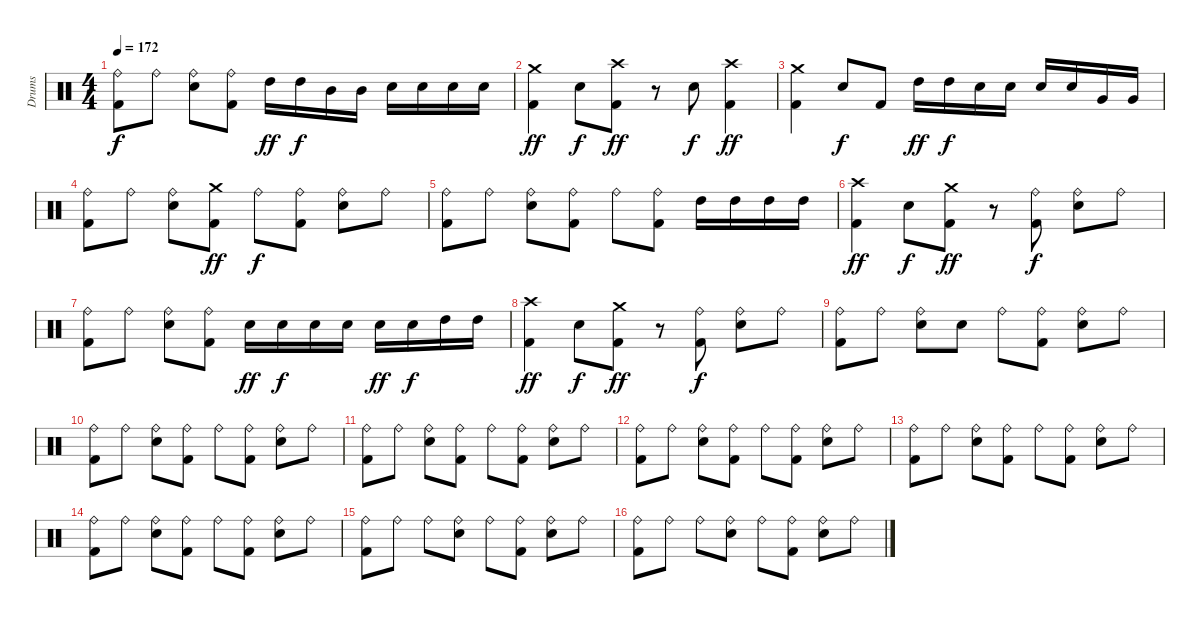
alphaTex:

\track ("Drums" "Drums") {instrument percussion}
\staff {score}
\articulation defaults
\ts (4 4)
\tempo 172
\clef neutral
\ks c
("Ride (bell)" "Kick (hit) 2").8{dy f} "Ride (bell)".8 ("Ride (bell)" "Electric Snare (hit)").8 ("Ride (bell)" "Kick (hit) 2").8 "High Tom (hit)".16{dy ff} "High Tom (hit)".16{dy f} "Mid Tom (hit)".16 "Mid Tom (hit)".16 "Electric Snare (hit)".16 "Electric Snare (hit)".16 "Electric Snare (hit)".16 "Electric Snare (hit)".16 |
("Crash medium (hit)" "Kick (hit) 2").4{dy ff} "Electric Snare (hit)".8{dy f} ("Crash high (hit)" "Kick (hit) 2").8{dy ff} r.8 "Electric Snare (hit)".8{dy f} ("Crash high (hit)" "Kick (hit) 2").4{dy ff} |
("Crash medium (hit)" "Kick (hit) 2").4 "Electric Snare (hit)".8{dy f} "Kick (hit) 2".8 "High Tom (hit)".16{dy ff} "High Tom (hit)".16{dy f} "Electric Snare (hit)".16 "Electric Snare (hit)".16 "Electric Snare (hit)".16 "Electric Snare (hit)".16 "Very Low Tom (hit)".16 "Very Low Tom (hit)".16 |
("Ride (bell)" "Kick (hit) 2").8 "Ride (bell)".8 ("Ride (bell)" "Electric Snare (hit)").8 ("Crash medium (hit)" "Kick (hit) 2").8{dy ff} "Ride (bell)".8{dy f} ("Ride (bell)" "Kick (hit) 2").8 ("Ride (bell)" "Electric Snare (hit)").8 "Ride (bell)".8 |
("Ride (bell)" "Kick (hit) 2").8 "Ride (bell)".8 ("Ride (bell)" "Electric Snare (hit)").8 ("Ride (bell)" "Kick (hit) 2").8 "Ride (bell)".8 ("Ride (bell)" "Kick (hit) 2").8 "High Tom (hit)".16 "High Tom (hit)".16 "High Tom (hit)".16 "High Tom (hit)".16 |
("Crash high (hit)" "Kick (hit) 2").4{dy ff} "Electric Snare (hit)".8{dy f} ("Crash medium (hit)" "Kick (hit) 2").8{dy ff} r.8 ("Ride (bell)" "Kick (hit) 2").8{dy f} ("Ride (bell)" "Electric Snare (hit)").8 "Ride (bell)".8 |
("Ride (bell)" "Kick (hit) 2").8 "Ride (bell)".8 ("Ride (bell)" "Electric Snare (hit)").8 ("Ride (bell)" "Kick (hit) 2").8 "Electric Snare (hit)".16{dy ff} "Electric Snare (hit)".16{dy f} "Electric Snare (hit)".16 "Electric Snare (hit)".16 "Electric Snare (hit)".16{dy ff} "Electric Snare (hit)".16{dy f} "High Tom (hit)".16 "High Tom (hit)".16 |
("Crash high (hit)" "Kick (hit) 2").4{dy ff} "Electric Snare (hit)".8{dy f} ("Crash medium (hit)" "Kick (hit) 2").8{dy ff} r.8 ("Ride (bell)" "Kick (hit) 2").8{dy f} ("Ride (bell)" "Electric Snare (hit)").8 "Ride (bell)".8 |
("Ride (bell)" "Kick (hit) 2").8 "Ride (bell)".8 ("Ride (bell)" "Electric Snare (hit)").8 "Electric Snare (hit)".8 "Ride (bell)".8 ("Ride (bell)" "Kick (hit) 2").8 ("Ride (bell)" "Electric Snare (hit)").8 "Ride (bell)".8 |
("Ride (bell)" "Kick (hit) 2").8 "Ride (bell)".8 ("Ride (bell)" "Electric Snare (hit)").8 ("Ride (bell)" "Kick (hit) 2").8 "Ride (bell)".8 ("Ride (bell)" "Kick (hit) 2").8 ("Ride (bell)" "Electric Snare (hit)").8 "Ride (bell)".8 |
("Ride (bell)" "Kick (hit) 2").8 "Ride (bell)".8 ("Ride (bell)" "Electric Snare (hit)").8 ("Ride (bell)" "Kick (hit) 2").8 "Ride (bell)".8 ("Ride (bell)" "Kick (hit) 2").8 ("Ride (bell)" "Electric Snare (hit)").8 "Ride (bell)".8 |
("Ride (bell)" "Kick (hit) 2").8 "Ride (bell)".8 ("Ride (bell)" "Electric Snare (hit)").8 ("Ride (bell)" "Kick (hit) 2").8 "Ride (bell)".8 ("Ride (bell)" "Kick (hit) 2").8 ("Ride (bell)" "Electric Snare (hit)").8 "Ride (bell)".8 |
("Ride (bell)" "Kick (hit) 2").8 "Ride (bell)".8 ("Ride (bell)" "Electric Snare (hit)").8 ("Ride (bell)" "Kick (hit) 2").8 "Ride (bell)".8 ("Ride (bell)" "Kick (hit) 2").8 ("Ride (bell)" "Electric Snare (hit)").8 "Ride (bell)".8 |
("Ride (bell)" "Kick (hit) 2").8 "Ride (bell)".8 ("Ride (bell)" "Electric Snare (hit)").8 ("Ride (bell)" "Kick (hit) 2").8 "Ride (bell)".8 ("Ride (bell)" "Kick (hit) 2").8 ("Ride (bell)" "Electric Snare (hit)").8 "Ride (bell)".8 |
("Ride (bell)" "Kick (hit) 2").8 "Ride (bell)".8 "Ride (bell)".8 ("Ride (bell)" "Electric Snare (hit)").8 "Ride (bell)".8 ("Ride (bell)" "Kick (hit) 2").8 ("Ride (bell)" "Electric Snare (hit)").8 "Ride (bell)".8 |
("Ride (bell)" "Kick (hit) 2").8 "Ride (bell)".8 "Ride (bell)".8 ("Ride (bell)" "Electric Snare (hit)").8 "Ride (bell)".8 ("Ride (bell)" "Kick (hit) 2").8 ("Ride (bell)" "Electric Snare (hit)").8 "Ride (bell)".8
